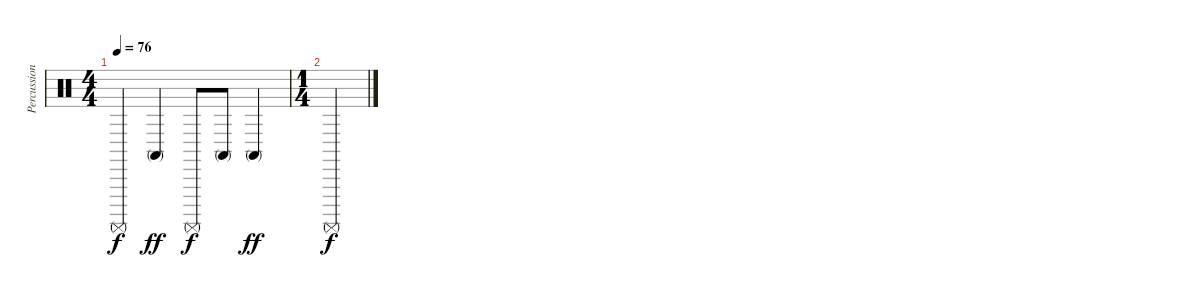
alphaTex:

\track ("Percussions" "Percussion") {instrument percussion}
\staff {score}
\articulation defaults
\ts (4 4)
\tempo 76
\clef neutral
\ks c "Surdo (mute)".4{dy f} "Conga high (mute)".4{dy ff} "Surdo (mute)".8{dy f} "Conga high (mute)".8 "Conga high (mute)".4{dy ff}
|
\ts (1 4)
"Surdo (mute)".4{dy f}
